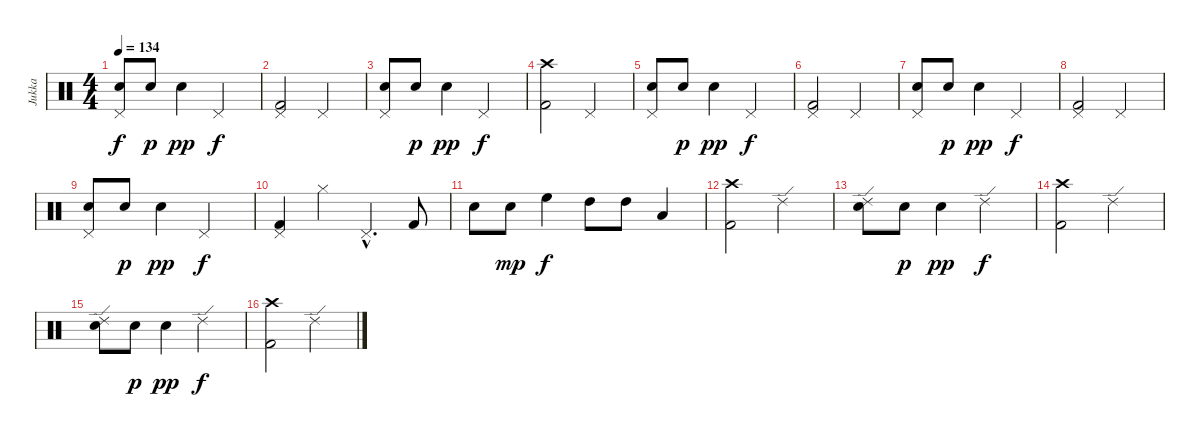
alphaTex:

\track ("Jukka" "Jukka") {instrument percussion}
\staff {score}
\articulation defaults
\ts (4 4)
\tempo 134
\clef neutral
\ks c
("Pedal Hi-Hat (hit)" "Electric Snare (hit)").8{dy f} "Electric Snare (hit)".8{dy p} "Electric Snare (hit)".4{dy pp} "Pedal Hi-Hat (hit)".2{dy f} |
("Pedal Hi-Hat (hit)" "Kick (hit) 2").2 "Pedal Hi-Hat (hit)".2 |
("Pedal Hi-Hat (hit)" "Electric Snare (hit)").8 "Electric Snare (hit)".8{dy p} "Electric Snare (hit)".4{dy pp} "Pedal Hi-Hat (hit)".2{dy f} |
("Crash high (hit)" "Kick (hit) 2").2 "Pedal Hi-Hat (hit)".2 |
("Pedal Hi-Hat (hit)" "Electric Snare (hit)").8 "Electric Snare (hit)".8{dy p} "Electric Snare (hit)".4{dy pp} "Pedal Hi-Hat (hit)".2{dy f} |
("Pedal Hi-Hat (hit)" "Kick (hit) 2").2 "Pedal Hi-Hat (hit)".2 |
("Pedal Hi-Hat (hit)" "Electric Snare (hit)").8 "Electric Snare (hit)".8{dy p} "Electric Snare (hit)".4{dy pp} "Pedal Hi-Hat (hit)".2{dy f} |
("Pedal Hi-Hat (hit)" "Kick (hit) 2").2 "Pedal Hi-Hat (hit)".2 |
("Pedal Hi-Hat (hit)" "Electric Snare (hit)").8 "Electric Snare (hit)".8{dy p} "Electric Snare (hit)".4{dy pp} "Pedal Hi-Hat (hit)".2{dy f} |
("Pedal Hi-Hat (hit)" "Kick (hit) 2").4 "Hi-Hat (closed)".4 "Pedal Hi-Hat (hit)"{hac}.4{d} "Kick (hit) 2".8 |
"Electric Snare (hit)".8 "Electric Snare (hit)".8{dy mp} "High Floor Tom (hit)".4{dy f} "High Tom (hit)".8 "High Tom (hit)".8 "Low Tom (hit)".4 |
("Crash high (hit)" "Kick (hit) 2").2 "Ride (edge) 2".2 |
("Ride (edge) 2" "Electric Snare (hit)").8 "Electric Snare (hit)".8{dy p} "Electric Snare (hit)".4{dy pp} "Ride (edge) 2".2{dy f} |
("Crash high (hit)" "Kick (hit) 2").2 "Ride (edge) 2".2 |
("Ride (edge) 2" "Electric Snare (hit)").8 "Electric Snare (hit)".8{dy p} "Electric Snare (hit)".4{dy pp} "Ride (edge) 2".2{dy f} |
("Crash high (hit)" "Kick (hit) 2").2 "Ride (edge) 2".2
